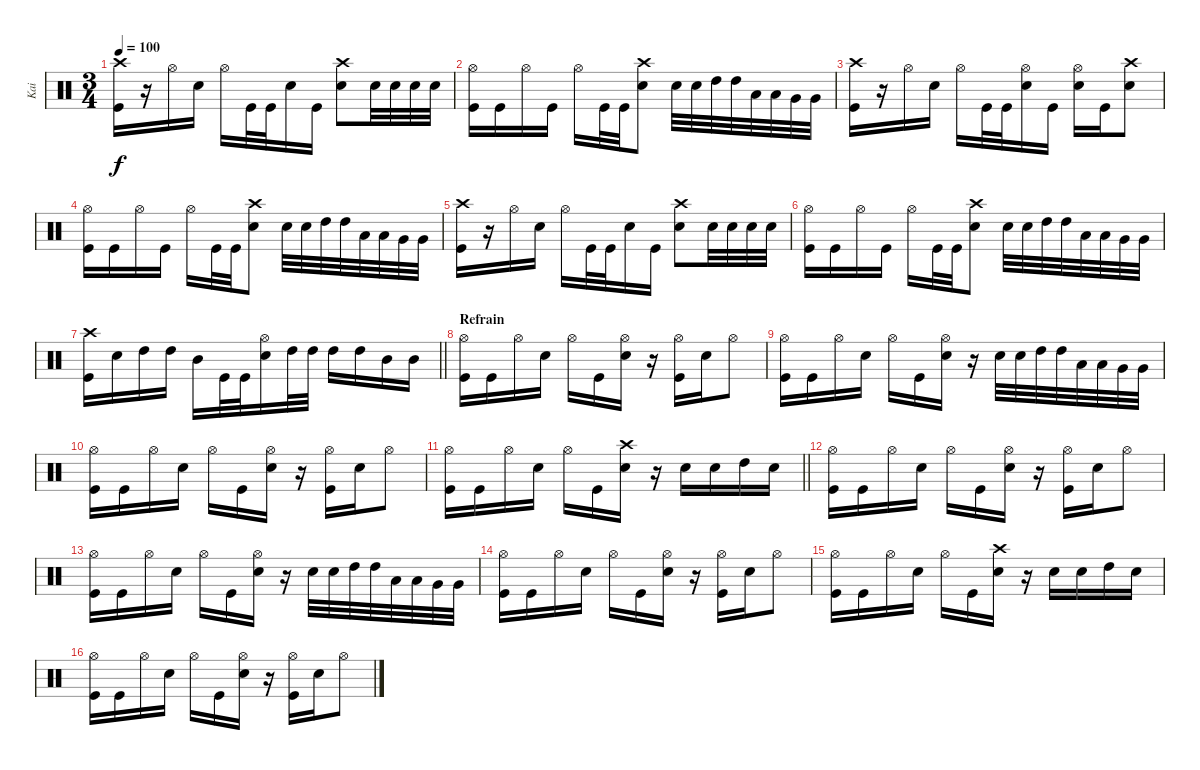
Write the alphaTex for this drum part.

\track ("Kai" "Kai") {instrument percussion}
\staff {score}
\articulation defaults
\ts (3 4)
\tempo 100
\clef neutral
\ks c
("Crash high (hit)" "Kick (hit)").16{dy f} r.16 "Hi-Hat (open)".16 "Snare (hit) 2".16 "Hi-Hat (open)".16 "Kick (hit)".32 "Kick (hit)".32 "Snare (hit) 2".16 "Kick (hit)".16 ("Crash high (hit)" "Snare (hit) 2").8 "Snare (hit) 2".32 "Snare (hit) 2".32 "Snare (hit) 2".32 "Snare (hit) 2".32 |
("Hi-Hat (open)" "Kick (hit)").16 "Kick (hit)".16 "Hi-Hat (open)".16 "Kick (hit)".16 "Hi-Hat (open)".16 "Kick (hit)".32 "Kick (hit)".32 ("Crash high (hit)" "Snare (hit) 2").8 "Snare (hit) 2".32 "Snare (hit) 2".32 "High Tom (hit)".32 "High Tom (hit)".32 "Low Tom (hit)".32 "Low Tom (hit)".32 "Very Low Tom (hit)".32 "Very Low Tom (hit)".32 |
("Crash high (hit)" "Kick (hit)").16 r.16 "Hi-Hat (open)".16 "Snare (hit) 2".16 "Hi-Hat (open)".16 "Kick (hit)".32 "Kick (hit)".32 ("Hi-Hat (open)" "Snare (hit) 2").16 "Kick (hit)".16 ("Hi-Hat (open)" "Snare (hit) 2").16 "Kick (hit)".16 ("Crash high (hit)" "Snare (hit) 2").8 |
("Hi-Hat (open)" "Kick (hit)").16 "Kick (hit)".16 "Hi-Hat (open)".16 "Kick (hit)".16 "Hi-Hat (open)".16 "Kick (hit)".32 "Kick (hit)".32 ("Crash high (hit)" "Snare (hit) 2").8 "Snare (hit) 2".32 "Snare (hit) 2".32 "High Tom (hit)".32 "High Tom (hit)".32 "Low Tom (hit)".32 "Low Tom (hit)".32 "Very Low Tom (hit)".32 "Very Low Tom (hit)".32 |
("Crash high (hit)" "Kick (hit)").16 r.16 "Hi-Hat (open)".16 "Snare (hit) 2".16 "Hi-Hat (open)".16 "Kick (hit)".32 "Kick (hit)".32 "Snare (hit) 2".16 "Kick (hit)".16 ("Crash high (hit)" "Snare (hit) 2").8 "Snare (hit) 2".32 "Snare (hit) 2".32 "Snare (hit) 2".32 "Snare (hit) 2".32 |
("Hi-Hat (open)" "Kick (hit)").16 "Kick (hit)".16 "Hi-Hat (open)".16 "Kick (hit)".16 "Hi-Hat (open)".16 "Kick (hit)".32 "Kick (hit)".32 ("Crash high (hit)" "Snare (hit) 2").8 "Snare (hit) 2".32 "Snare (hit) 2".32 "High Tom (hit)".32 "High Tom (hit)".32 "Low Tom (hit)".32 "Low Tom (hit)".32 "Very Low Tom (hit)".32 "Very Low Tom (hit)".32 |
\barLineRight lightlight
("Crash high (hit)" "Kick (hit)").16 "Snare (hit) 2".16 "High Tom (hit)".16 "High Tom (hit)".16 "Mid Tom (hit)".16 "Kick (hit)".32 "Kick (hit)".32 ("Hi-Hat (open)" "Snare (hit) 2").16 "High Tom (hit)".32 "High Tom (hit)".32 "High Tom (hit)".16 "High Tom (hit)".16 "Mid Tom (hit)".16 "Mid Tom (hit)".16 |
\section ("" "Refrain")
("Hi-Hat (open)" "Kick (hit)").16 "Kick (hit)".16 "Hi-Hat (open)".16 "Snare (hit) 2".16 "Hi-Hat (open)".16 "Kick (hit)".16 ("Hi-Hat (open)" "Snare (hit) 2").16 r.16 ("Hi-Hat (open)" "Kick (hit)").16 "Snare (hit) 2".16 "Hi-Hat (open)".8 |
("Hi-Hat (open)" "Kick (hit)").16 "Kick (hit)".16 "Hi-Hat (open)".16 "Snare (hit) 2".16 "Hi-Hat (open)".16 "Kick (hit)".16 ("Hi-Hat (open)" "Snare (hit) 2").16 r.16 "Snare (hit) 2".32 "Snare (hit) 2".32 "High Tom (hit)".32 "High Tom (hit)".32 "Low Tom (hit)".32 "Low Tom (hit)".32 "Very Low Tom (hit)".32 "Very Low Tom (hit)".32 |
("Hi-Hat (open)" "Kick (hit)").16 "Kick (hit)".16 "Hi-Hat (open)".16 "Snare (hit) 2".16 "Hi-Hat (open)".16 "Kick (hit)".16 ("Hi-Hat (open)" "Snare (hit) 2").16 r.16 ("Hi-Hat (open)" "Kick (hit)").16 "Snare (hit) 2".16 "Hi-Hat (open)".8 |
\barLineRight lightlight
("Hi-Hat (open)" "Kick (hit)").16 "Kick (hit)".16 "Hi-Hat (open)".16 "Snare (hit) 2".16 "Hi-Hat (open)".16 "Kick (hit)".16 ("Crash high (hit)" "Snare (hit) 2").16 r.16 "Snare (hit) 2".16 "Snare (hit) 2".16 "High Tom (hit)".16 "Snare (hit) 2".16 |
("Hi-Hat (open)" "Kick (hit)").16 "Kick (hit)".16 "Hi-Hat (open)".16 "Snare (hit) 2".16 "Hi-Hat (open)".16 "Kick (hit)".16 ("Hi-Hat (open)" "Snare (hit) 2").16 r.16 ("Hi-Hat (open)" "Kick (hit)").16 "Snare (hit) 2".16 "Hi-Hat (open)".8 |
("Hi-Hat (open)" "Kick (hit)").16 "Kick (hit)".16 "Hi-Hat (open)".16 "Snare (hit) 2".16 "Hi-Hat (open)".16 "Kick (hit)".16 ("Hi-Hat (open)" "Snare (hit) 2").16 r.16 "Snare (hit) 2".32 "Snare (hit) 2".32 "High Tom (hit)".32 "High Tom (hit)".32 "Low Tom (hit)".32 "Low Tom (hit)".32 "Very Low Tom (hit)".32 "Very Low Tom (hit)".32 |
("Hi-Hat (open)" "Kick (hit)").16 "Kick (hit)".16 "Hi-Hat (open)".16 "Snare (hit) 2".16 "Hi-Hat (open)".16 "Kick (hit)".16 ("Hi-Hat (open)" "Snare (hit) 2").16 r.16 ("Hi-Hat (open)" "Kick (hit)").16 "Snare (hit) 2".16 "Hi-Hat (open)".8 |
("Hi-Hat (open)" "Kick (hit)").16 "Kick (hit)".16 "Hi-Hat (open)".16 "Snare (hit) 2".16 "Hi-Hat (open)".16 "Kick (hit)".16 ("Crash high (hit)" "Snare (hit) 2").16 r.16 "Snare (hit) 2".16 "Snare (hit) 2".16 "High Tom (hit)".16 "Snare (hit) 2".16 |
("Hi-Hat (open)" "Kick (hit)").16 "Kick (hit)".16 "Hi-Hat (open)".16 "Snare (hit) 2".16 "Hi-Hat (open)".16 "Kick (hit)".16 ("Hi-Hat (open)" "Snare (hit) 2").16 r.16 ("Hi-Hat (open)" "Kick (hit)").16 "Snare (hit) 2".16 "Hi-Hat (open)".8
